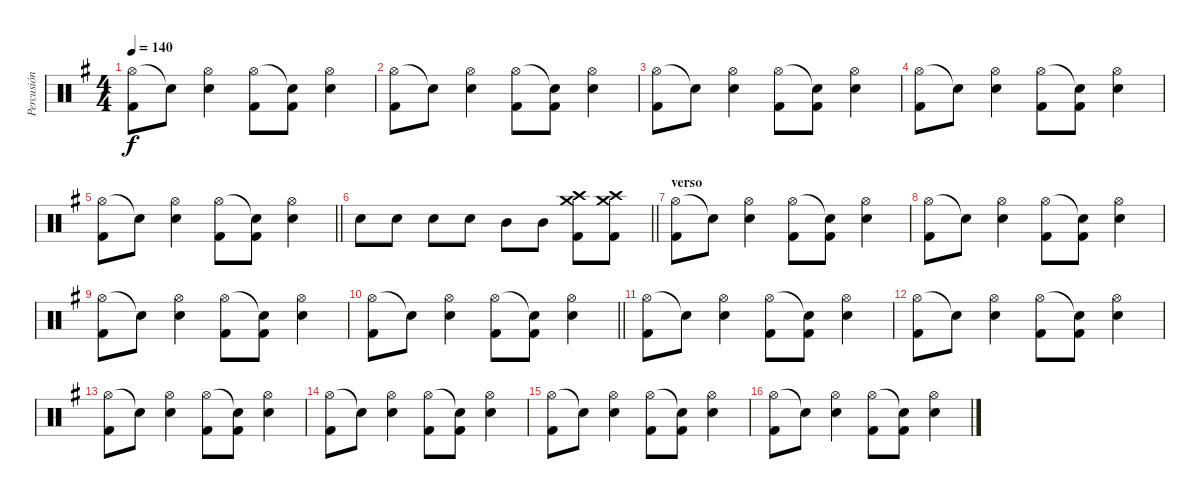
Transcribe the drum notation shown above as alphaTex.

\track ("Percusión" "Percusión") {instrument percussion}
\staff {score}
\articulation defaults
\ts (4 4)
\tempo 140
\clef neutral
\ks g
("Hi-Hat (open)" "Kick (hit) 2").8{dy f} "Snare (hit)"{t}.8 ("Hi-Hat (open)" "Electric Snare (hit)").4 ("Hi-Hat (open)" "Kick (hit) 2").8 ("Snare (hit)"{t} "Kick (hit) 2").8 ("Hi-Hat (open)" "Electric Snare (hit)").4 |
("Hi-Hat (open)" "Kick (hit) 2").8 "Snare (hit)"{t}.8 ("Hi-Hat (open)" "Electric Snare (hit)").4 ("Hi-Hat (open)" "Kick (hit) 2").8 ("Snare (hit)"{t} "Kick (hit) 2").8 ("Hi-Hat (open)" "Electric Snare (hit)").4 |
("Hi-Hat (open)" "Kick (hit) 2").8 "Snare (hit)"{t}.8 ("Hi-Hat (open)" "Electric Snare (hit)").4 ("Hi-Hat (open)" "Kick (hit) 2").8 ("Snare (hit)"{t} "Kick (hit) 2").8 ("Hi-Hat (open)" "Electric Snare (hit)").4 |
("Hi-Hat (open)" "Kick (hit) 2").8 "Snare (hit)"{t}.8 ("Hi-Hat (open)" "Electric Snare (hit)").4 ("Hi-Hat (open)" "Kick (hit) 2").8 ("Snare (hit)"{t} "Kick (hit) 2").8 ("Hi-Hat (open)" "Electric Snare (hit)").4 |
\barLineRight lightlight
("Hi-Hat (open)" "Kick (hit) 2").8 "Snare (hit)"{t}.8 ("Hi-Hat (open)" "Electric Snare (hit)").4 ("Hi-Hat (open)" "Kick (hit) 2").8 ("Snare (hit)"{t} "Kick (hit) 2").8 ("Hi-Hat (open)" "Electric Snare (hit)").4 |
\barLineRight lightlight "Electric Snare (hit)".8 "Electric Snare (hit)".8 "Electric Snare (hit)".8 "Electric Snare (hit)".8 "Mid Tom (hit)".8 "Mid Tom (hit)".8
("Crash high (hit)" "Crash medium (hit)" "Kick (hit) 2").8 ("Crash high (hit)" "Crash medium (hit)" "Kick (hit) 2").8 |
\section ("" "verso")
("Hi-Hat (open)" "Kick (hit) 2").8 "Snare (hit)"{t}.8 ("Hi-Hat (open)" "Electric Snare (hit)").4 ("Hi-Hat (open)" "Kick (hit) 2").8 ("Snare (hit)"{t} "Kick (hit) 2").8 ("Hi-Hat (open)" "Electric Snare (hit)").4 |
("Hi-Hat (open)" "Kick (hit) 2").8 "Snare (hit)"{t}.8 ("Hi-Hat (open)" "Electric Snare (hit)").4 ("Hi-Hat (open)" "Kick (hit) 2").8 ("Snare (hit)"{t} "Kick (hit) 2").8 ("Hi-Hat (open)" "Electric Snare (hit)").4 |
("Hi-Hat (open)" "Kick (hit) 2").8 "Snare (hit)"{t}.8 ("Hi-Hat (open)" "Electric Snare (hit)").4 ("Hi-Hat (open)" "Kick (hit) 2").8 ("Snare (hit)"{t} "Kick (hit) 2").8 ("Hi-Hat (open)" "Electric Snare (hit)").4 |
\barLineRight lightlight
("Hi-Hat (open)" "Kick (hit) 2").8 "Snare (hit)"{t}.8 ("Hi-Hat (open)" "Electric Snare (hit)").4 ("Hi-Hat (open)" "Kick (hit) 2").8 ("Snare (hit)"{t} "Kick (hit) 2").8 ("Hi-Hat (open)" "Electric Snare (hit)").4 |
("Hi-Hat (open)" "Kick (hit) 2").8 "Snare (hit)"{t}.8 ("Hi-Hat (open)" "Electric Snare (hit)").4 ("Hi-Hat (open)" "Kick (hit) 2").8 ("Snare (hit)"{t} "Kick (hit) 2").8 ("Hi-Hat (open)" "Electric Snare (hit)").4 |
("Hi-Hat (open)" "Kick (hit) 2").8 "Snare (hit)"{t}.8 ("Hi-Hat (open)" "Electric Snare (hit)").4 ("Hi-Hat (open)" "Kick (hit) 2").8 ("Snare (hit)"{t} "Kick (hit) 2").8 ("Hi-Hat (open)" "Electric Snare (hit)").4 |
("Hi-Hat (open)" "Kick (hit) 2").8 "Snare (hit)"{t}.8 ("Hi-Hat (open)" "Electric Snare (hit)").4 ("Hi-Hat (open)" "Kick (hit) 2").8 ("Snare (hit)"{t} "Kick (hit) 2").8 ("Hi-Hat (open)" "Electric Snare (hit)").4 |
("Hi-Hat (open)" "Kick (hit) 2").8 "Snare (hit)"{t}.8 ("Hi-Hat (open)" "Electric Snare (hit)").4 ("Hi-Hat (open)" "Kick (hit) 2").8 ("Snare (hit)"{t} "Kick (hit) 2").8 ("Hi-Hat (open)" "Electric Snare (hit)").4 |
("Hi-Hat (open)" "Kick (hit) 2").8 "Snare (hit)"{t}.8 ("Hi-Hat (open)" "Electric Snare (hit)").4 ("Hi-Hat (open)" "Kick (hit) 2").8 ("Snare (hit)"{t} "Kick (hit) 2").8 ("Hi-Hat (open)" "Electric Snare (hit)").4 |
("Hi-Hat (open)" "Kick (hit) 2").8 "Snare (hit)"{t}.8 ("Hi-Hat (open)" "Electric Snare (hit)").4 ("Hi-Hat (open)" "Kick (hit) 2").8 ("Snare (hit)"{t} "Kick (hit) 2").8 ("Hi-Hat (open)" "Electric Snare (hit)").4
